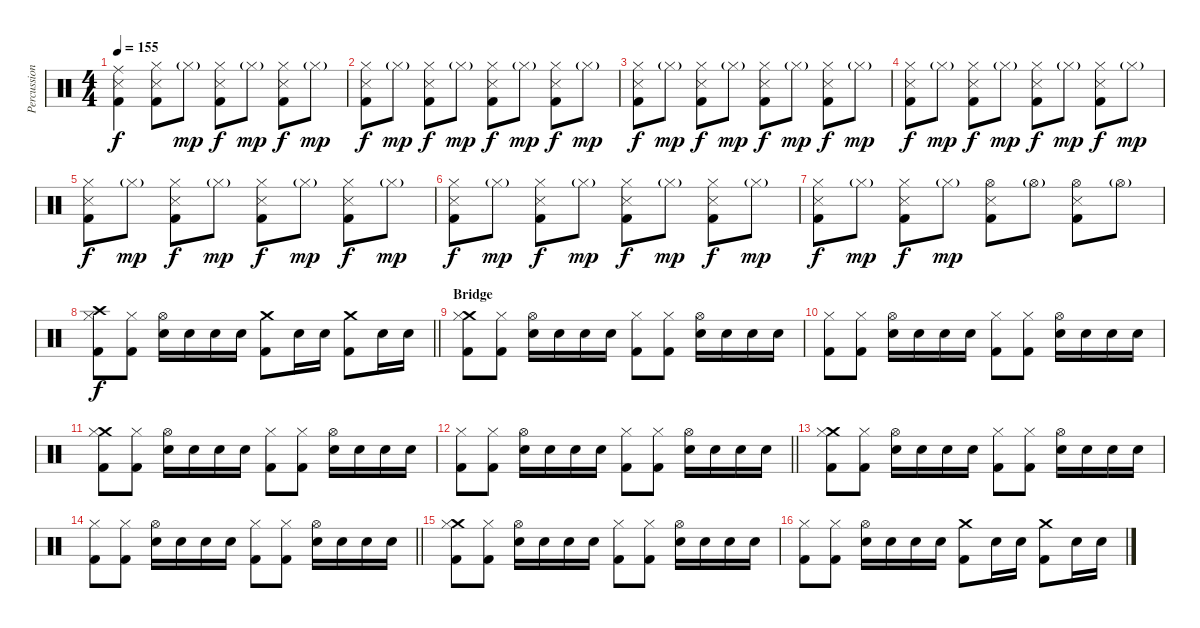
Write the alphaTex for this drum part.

\track ("Percussion" "Percussion") {instrument percussion}
\staff {score}
\articulation defaults
\ts (4 4)
\tempo 155
\clef neutral
\ks c
("Ride (middle)" "Snare (side stick) 3" "Kick (hit) 2").4{dy f} ("Hi-Hat (closed)" "Snare (side stick) 3" "Kick (hit) 2").8 "Hi-Hat (closed)"{g}.8{dy mp} ("Hi-Hat (closed)" "Snare (side stick) 3" "Kick (hit) 2").8{dy f} "Hi-Hat (closed)"{g}.8{dy mp} ("Hi-Hat (closed)" "Snare (side stick) 3" "Kick (hit) 2").8{dy f} "Hi-Hat (closed)"{g}.8{dy mp} |
("Hi-Hat (closed)" "Snare (side stick) 3" "Kick (hit) 2").8{dy f} "Hi-Hat (closed)"{g}.8{dy mp} ("Hi-Hat (closed)" "Snare (side stick) 3" "Kick (hit) 2").8{dy f} "Hi-Hat (closed)"{g}.8{dy mp} ("Hi-Hat (closed)" "Snare (side stick) 3" "Kick (hit) 2").8{dy f} "Hi-Hat (closed)"{g}.8{dy mp} ("Hi-Hat (closed)" "Snare (side stick) 3" "Kick (hit) 2").8{dy f} "Hi-Hat (closed)"{g}.8{dy mp} |
("Hi-Hat (closed)" "Snare (side stick) 3" "Kick (hit) 2").8{dy f} "Hi-Hat (closed)"{g}.8{dy mp} ("Hi-Hat (closed)" "Snare (side stick) 3" "Kick (hit) 2").8{dy f} "Hi-Hat (closed)"{g}.8{dy mp} ("Hi-Hat (closed)" "Snare (side stick) 3" "Kick (hit) 2").8{dy f} "Hi-Hat (closed)"{g}.8{dy mp} ("Hi-Hat (closed)" "Snare (side stick) 3" "Kick (hit) 2").8{dy f} "Hi-Hat (closed)"{g}.8{dy mp} |
("Hi-Hat (closed)" "Snare (side stick) 3" "Kick (hit) 2").8{dy f} "Hi-Hat (closed)"{g}.8{dy mp} ("Hi-Hat (closed)" "Snare (side stick) 3" "Kick (hit) 2").8{dy f} "Hi-Hat (closed)"{g}.8{dy mp} ("Hi-Hat (closed)" "Snare (side stick) 3" "Kick (hit) 2").8{dy f} "Hi-Hat (closed)"{g}.8{dy mp} ("Hi-Hat (closed)" "Snare (side stick) 3" "Kick (hit) 2").8{dy f} "Hi-Hat (closed)"{g}.8{dy mp} |
("Hi-Hat (closed)" "Snare (side stick) 3" "Kick (hit) 2").8{dy f} "Hi-Hat (closed)"{g}.8{dy mp} ("Hi-Hat (closed)" "Snare (side stick) 3" "Kick (hit) 2").8{dy f} "Hi-Hat (closed)"{g}.8{dy mp} ("Hi-Hat (closed)" "Snare (side stick) 3" "Kick (hit) 2").8{dy f} "Hi-Hat (closed)"{g}.8{dy mp} ("Hi-Hat (closed)" "Snare (side stick) 3" "Kick (hit) 2").8{dy f} "Hi-Hat (closed)"{g}.8{dy mp} |
("Hi-Hat (closed)" "Snare (side stick) 3" "Kick (hit) 2").8{dy f} "Hi-Hat (closed)"{g}.8{dy mp} ("Hi-Hat (closed)" "Snare (side stick) 3" "Kick (hit) 2").8{dy f} "Hi-Hat (closed)"{g}.8{dy mp} ("Hi-Hat (closed)" "Snare (side stick) 3" "Kick (hit) 2").8{dy f} "Hi-Hat (closed)"{g}.8{dy mp} ("Hi-Hat (closed)" "Snare (side stick) 3" "Kick (hit) 2").8{dy f} "Hi-Hat (closed)"{g}.8{dy mp} |
("Hi-Hat (closed)" "Snare (side stick) 3" "Kick (hit) 2").8{dy f} "Hi-Hat (closed)"{g}.8{dy mp} ("Hi-Hat (closed)" "Snare (side stick) 3" "Kick (hit) 2").8{dy f} "Hi-Hat (closed)"{g}.8{dy mp} ("Hi-Hat (open)" "Snare (side stick) 3" "Kick (hit) 2").8 "Hi-Hat (open)"{g}.8 ("Hi-Hat (open)" "Snare (side stick) 3" "Kick (hit) 2").8 "Hi-Hat (open)"{g}.8 |
\barLineRight lightlight
("Crash high (hit)" "Hi-Hat (closed)" "Kick (hit) 2").8{dy f} ("Hi-Hat (closed)" "Kick (hit) 2").8 ("Hi-Hat (open)" "Electric Snare (hit)").16 "Electric Snare (hit)".16 "Electric Snare (hit)".16 "Electric Snare (hit)".16 ("Crash medium (hit)" "Kick (hit) 2").8 "Electric Snare (hit)".16 "Electric Snare (hit)".16 ("Crash medium (hit)" "Kick (hit) 2").8 "Electric Snare (hit)".16 "Electric Snare (hit)".16 |
\section ("" "Bridge")
("Crash medium (hit)" "Hi-Hat (closed)" "Kick (hit) 2").8 ("Hi-Hat (closed)" "Kick (hit) 2").8 ("Hi-Hat (open)" "Electric Snare (hit)").16 "Electric Snare (hit)".16 "Electric Snare (hit)".16 "Electric Snare (hit)".16 ("Hi-Hat (closed)" "Kick (hit) 2").8 ("Hi-Hat (closed)" "Kick (hit) 2").8 ("Hi-Hat (open)" "Electric Snare (hit)").16 "Electric Snare (hit)".16 "Electric Snare (hit)".16 "Electric Snare (hit)".16 |
("Hi-Hat (closed)" "Kick (hit) 2").8 ("Hi-Hat (closed)" "Kick (hit) 2").8 ("Hi-Hat (open)" "Electric Snare (hit)").16 "Electric Snare (hit)".16 "Electric Snare (hit)".16 "Electric Snare (hit)".16 ("Hi-Hat (closed)" "Kick (hit) 2").8 ("Hi-Hat (closed)" "Kick (hit) 2").8 ("Hi-Hat (open)" "Electric Snare (hit)").16 "Electric Snare (hit)".16 "Electric Snare (hit)".16 "Electric Snare (hit)".16 |
("Crash medium (hit)" "Hi-Hat (closed)" "Kick (hit) 2").8 ("Hi-Hat (closed)" "Kick (hit) 2").8 ("Hi-Hat (open)" "Electric Snare (hit)").16 "Electric Snare (hit)".16 "Electric Snare (hit)".16 "Electric Snare (hit)".16 ("Hi-Hat (closed)" "Kick (hit) 2").8 ("Hi-Hat (closed)" "Kick (hit) 2").8 ("Hi-Hat (open)" "Electric Snare (hit)").16 "Electric Snare (hit)".16 "Electric Snare (hit)".16 "Electric Snare (hit)".16 |
\barLineRight lightlight
("Hi-Hat (closed)" "Kick (hit) 2").8 ("Hi-Hat (closed)" "Kick (hit) 2").8 ("Hi-Hat (open)" "Electric Snare (hit)").16 "Electric Snare (hit)".16 "Electric Snare (hit)".16 "Electric Snare (hit)".16 ("Hi-Hat (closed)" "Kick (hit) 2").8 ("Hi-Hat (closed)" "Kick (hit) 2").8 ("Hi-Hat (open)" "Electric Snare (hit)").16 "Electric Snare (hit)".16 "Electric Snare (hit)".16 "Electric Snare (hit)".16 |
("Crash medium (hit)" "Hi-Hat (closed)" "Kick (hit) 2").8 ("Hi-Hat (closed)" "Kick (hit) 2").8 ("Hi-Hat (open)" "Electric Snare (hit)").16 "Electric Snare (hit)".16 "Electric Snare (hit)".16 "Electric Snare (hit)".16 ("Hi-Hat (closed)" "Kick (hit) 2").8 ("Hi-Hat (closed)" "Kick (hit) 2").8 ("Hi-Hat (open)" "Electric Snare (hit)").16 "Electric Snare (hit)".16 "Electric Snare (hit)".16 "Electric Snare (hit)".16 |
\barLineRight lightlight
("Hi-Hat (closed)" "Kick (hit) 2").8 ("Hi-Hat (closed)" "Kick (hit) 2").8 ("Hi-Hat (open)" "Electric Snare (hit)").16 "Electric Snare (hit)".16 "Electric Snare (hit)".16 "Electric Snare (hit)".16 ("Hi-Hat (closed)" "Kick (hit) 2").8 ("Hi-Hat (closed)" "Kick (hit) 2").8 ("Hi-Hat (open)" "Electric Snare (hit)").16 "Electric Snare (hit)".16 "Electric Snare (hit)".16 "Electric Snare (hit)".16 |
("Crash medium (hit)" "Hi-Hat (closed)" "Kick (hit) 2").8 ("Hi-Hat (closed)" "Kick (hit) 2").8 ("Hi-Hat (open)" "Electric Snare (hit)").16 "Electric Snare (hit)".16 "Electric Snare (hit)".16 "Electric Snare (hit)".16 ("Hi-Hat (closed)" "Kick (hit) 2").8 ("Hi-Hat (closed)" "Kick (hit) 2").8 ("Hi-Hat (open)" "Electric Snare (hit)").16 "Electric Snare (hit)".16 "Electric Snare (hit)".16 "Electric Snare (hit)".16 |
("Hi-Hat (closed)" "Kick (hit) 2").8 ("Hi-Hat (closed)" "Kick (hit) 2").8 ("Hi-Hat (open)" "Electric Snare (hit)").16 "Electric Snare (hit)".16 "Electric Snare (hit)".16 "Electric Snare (hit)".16 ("Crash medium (hit)" "Kick (hit) 2").8 "Electric Snare (hit)".16 "Electric Snare (hit)".16 ("Crash medium (hit)" "Kick (hit) 2").8 "Electric Snare (hit)".16 "Electric Snare (hit)".16
